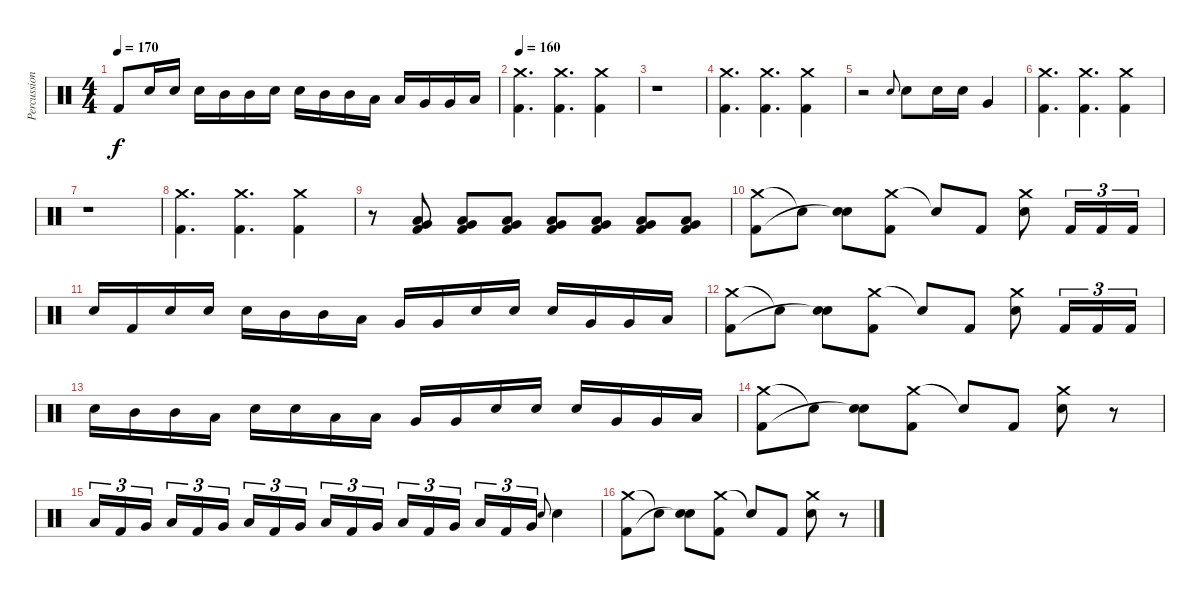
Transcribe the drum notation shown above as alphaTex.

\track ("Percussion" "Percussion") {instrument percussion}
\staff {score}
\articulation defaults
\ts (4 4)
\tempo 170
\clef neutral
\ks c "Kick (hit) 2".8{dy f} "Snare (hit) 2".16 "Snare (hit) 2".16 "Snare (hit) 2".16 "Mid Tom (hit)".16 "Mid Tom (hit)".16 "Snare (hit) 2".16 "Snare (hit) 2".16 "Mid Tom (hit)".16 "Mid Tom (hit)".16 "Low Tom (hit)".16 "Low Tom (hit)".16 "Very Low Tom (hit)".16 "Very Low Tom (hit)".16 "Low Floor Tom (hit)".16
|
\tempo 160
("Crash medium (hit)" "Kick (hit) 2").4{d} ("Crash medium (hit)" "Kick (hit) 2").4{d} ("Crash medium (hit)" "Kick (hit) 2").4 |
r.1 |
("Crash medium (hit)" "Kick (hit) 2").4{d} ("Crash medium (hit)" "Kick (hit) 2").4{d} ("Crash medium (hit)" "Kick (hit) 2").4 |
r.2 "Snare (hit) 2"{h}.8{gr onbeat} "Snare (hit) 2".8 "Snare (hit) 2".16 "Snare (hit) 2".16 "Very Low Tom (hit)".4 |
("Crash medium (hit)" "Kick (hit) 2").4{d} ("Crash medium (hit)" "Kick (hit) 2").4{d} ("Crash medium (hit)" "Kick (hit) 2").4 |
r.1 |
("Crash medium (hit)" "Kick (hit) 2").4{d} ("Crash medium (hit)" "Kick (hit) 2").4{d} ("Crash medium (hit)" "Kick (hit) 2").4 |
r.8 ("Low Floor Tom (hit)" "Very Low Tom (hit)" "Kick (hit) 2").8 ("Low Floor Tom (hit)" "Very Low Tom (hit)" "Kick (hit) 2").8 ("Low Floor Tom (hit)" "Very Low Tom (hit)" "Kick (hit) 2").8 ("Low Floor Tom (hit)" "Very Low Tom (hit)" "Kick (hit) 2").8 ("Low Floor Tom (hit)" "Very Low Tom (hit)" "Kick (hit) 2").8 ("Low Floor Tom (hit)" "Very Low Tom (hit)" "Kick (hit) 2").8 ("Low Floor Tom (hit)" "Very Low Tom (hit)" "Kick (hit) 2").8 |
("Crash medium (hit)" "Kick (hit) 2").8 "Snare (hit)"{t}.8 ("Snare (hit) 2" "Snare (hit)"{t}).8 ("Crash medium (hit)" "Kick (hit) 2").8 "Snare (hit)"{t}.8 "Kick (hit) 2".8 ("Crash medium (hit)" "Snare (hit) 2").8 "Kick (hit) 2".16{tu (3 2)} "Kick (hit) 2".16{tu (3 2)} "Kick (hit) 2".16{tu (3 2)} |
"Snare (hit) 2".16 "Kick (hit) 2".16 "Snare (hit) 2".16 "Snare (hit) 2".16 "Snare (hit) 2".16 "Mid Tom (hit)".16 "Mid Tom (hit)".16 "Low Tom (hit)".16 "Very Low Tom (hit)".16 "Very Low Tom (hit)".16 "Snare (hit) 2".16 "Snare (hit) 2".16 "Snare (hit) 2".16 "Very Low Tom (hit)".16 "Very Low Tom (hit)".16 "Low Floor Tom (hit)".16 |
("Crash medium (hit)" "Kick (hit) 2").8 "Snare (hit)"{t}.8 ("Snare (hit) 2" "Snare (hit)"{t}).8 ("Crash medium (hit)" "Kick (hit) 2").8 "Snare (hit)"{t}.8 "Kick (hit) 2".8 ("Crash medium (hit)" "Snare (hit) 2").8 "Kick (hit) 2".16{tu (3 2)} "Kick (hit) 2".16{tu (3 2)} "Kick (hit) 2".16{tu (3 2)} |
"Snare (hit) 2".16 "Mid Tom (hit)".16 "Mid Tom (hit)".16 "Low Tom (hit)".16 "Snare (hit) 2".16 "Snare (hit) 2".16 "Low Tom (hit)".16 "Low Tom (hit)".16 "Very Low Tom (hit)".16 "Very Low Tom (hit)".16 "Snare (hit) 2".16 "Snare (hit) 2".16 "Snare (hit) 2".16 "Very Low Tom (hit)".16 "Very Low Tom (hit)".16 "Low Floor Tom (hit)".16 |
("Crash medium (hit)" "Kick (hit) 2").8 "Snare (hit)"{t}.8 ("Snare (hit) 2" "Snare (hit)"{t}).8 ("Crash medium (hit)" "Kick (hit) 2").8 "Snare (hit)"{t}.8 "Kick (hit) 2".8 ("Crash medium (hit)" "Snare (hit) 2").8 r.8 |
"Low Floor Tom (hit)".16{tu (3 2)} "Kick (hit) 2".16{tu (3 2)} "Very Low Tom (hit)".16{tu (3 2) beam splitsecondary} "Low Floor Tom (hit)".16{tu (3 2)} "Kick (hit) 2".16{tu (3 2)} "Very Low Tom (hit)".16{tu (3 2)} "Low Floor Tom (hit)".16{tu (3 2)} "Kick (hit) 2".16{tu (3 2)} "Very Low Tom (hit)".16{tu (3 2) beam splitsecondary} "Low Floor Tom (hit)".16{tu (3 2)} "Kick (hit) 2".16{tu (3 2)} "Very Low Tom (hit)".16{tu (3 2)} "Low Floor Tom (hit)".16{tu (3 2)} "Kick (hit) 2".16{tu (3 2)} "Very Low Tom (hit)".16{tu (3 2) beam splitsecondary} "Low Floor Tom (hit)".16{tu (3 2)} "Kick (hit) 2".16{tu (3 2)} "Very Low Tom (hit)".16{tu (3 2)} "Snare (hit) 2".8{gr onbeat} "Snare (hit) 2".4 |
("Crash medium (hit)" "Kick (hit) 2").8 "Snare (hit)"{t}.8 ("Snare (hit) 2" "Snare (hit)"{t}).8 ("Crash medium (hit)" "Kick (hit) 2").8 "Snare (hit)"{t}.8 "Kick (hit) 2".8 ("Crash medium (hit)" "Snare (hit) 2").8 r.8
